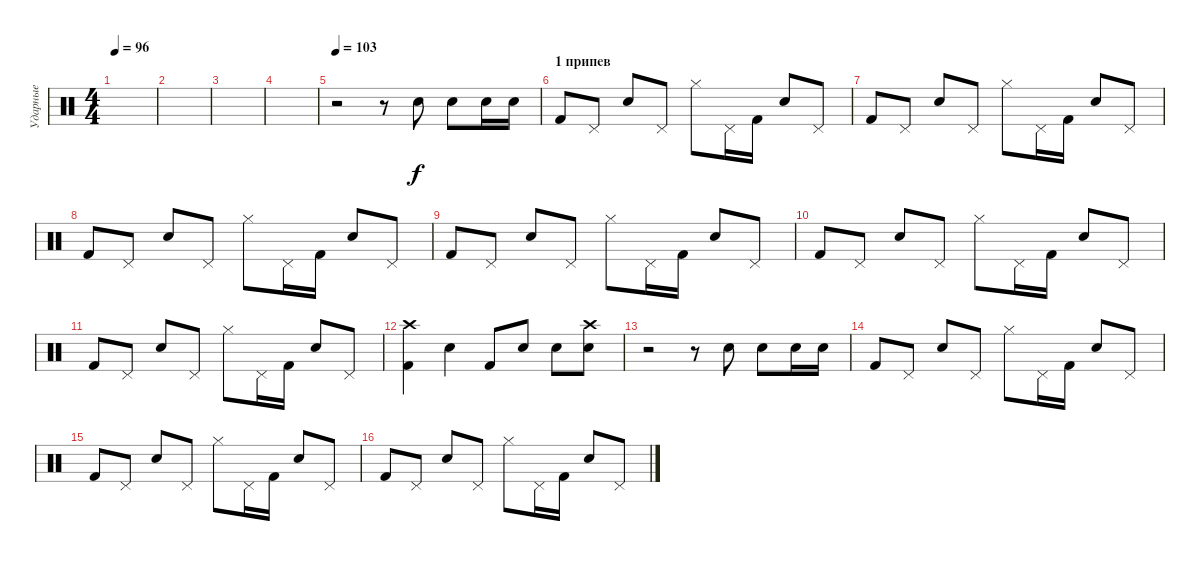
\track ("Ударные" "Ударные") {instrument percussion}
\staff {score}
\articulation defaults
\ts (4 4)
\tempo 96
\clef neutral
\ks c
|
|
|
|
\tempo 103
r.2 r.8 "Snare (hit) 2".8 "Snare (hit) 2".8 "Snare (hit) 2".16 "Snare (hit) 2".16 |
\section ("" "1 припев")
"Kick (hit) 2".8 "Pedal Hi-Hat (hit)".8 "Snare (hit) 2".8 "Pedal Hi-Hat (hit)".8 "Hi-Hat (closed)".8 "Pedal Hi-Hat (hit)".16 "Kick (hit) 2".16 "Snare (hit) 2".8 "Pedal Hi-Hat (hit)".8 |
"Kick (hit) 2".8 "Pedal Hi-Hat (hit)".8 "Snare (hit) 2".8 "Pedal Hi-Hat (hit)".8 "Hi-Hat (closed)".8 "Pedal Hi-Hat (hit)".16 "Kick (hit) 2".16 "Snare (hit) 2".8 "Pedal Hi-Hat (hit)".8 |
"Kick (hit) 2".8 "Pedal Hi-Hat (hit)".8 "Snare (hit) 2".8 "Pedal Hi-Hat (hit)".8 "Hi-Hat (closed)".8 "Pedal Hi-Hat (hit)".16 "Kick (hit) 2".16 "Snare (hit) 2".8 "Pedal Hi-Hat (hit)".8 |
"Kick (hit) 2".8 "Pedal Hi-Hat (hit)".8 "Snare (hit) 2".8 "Pedal Hi-Hat (hit)".8 "Hi-Hat (closed)".8 "Pedal Hi-Hat (hit)".16 "Kick (hit) 2".16 "Snare (hit) 2".8 "Pedal Hi-Hat (hit)".8 |
"Kick (hit) 2".8 "Pedal Hi-Hat (hit)".8 "Snare (hit) 2".8 "Pedal Hi-Hat (hit)".8 "Hi-Hat (closed)".8 "Pedal Hi-Hat (hit)".16 "Kick (hit) 2".16 "Snare (hit) 2".8 "Pedal Hi-Hat (hit)".8 |
"Kick (hit) 2".8 "Pedal Hi-Hat (hit)".8 "Snare (hit) 2".8 "Pedal Hi-Hat (hit)".8 "Hi-Hat (closed)".8 "Pedal Hi-Hat (hit)".16 "Kick (hit) 2".16 "Snare (hit) 2".8 "Pedal Hi-Hat (hit)".8 |
("Crash high (hit)" "Kick (hit) 2").4 "Snare (hit) 2".4 "Kick (hit) 2".8 "Snare (hit) 2".8 "Snare (hit) 2".8 ("Crash high (hit)" "Snare (hit) 2").8 |
r.2 r.8 "Snare (hit) 2".8 "Snare (hit) 2".8 "Snare (hit) 2".16 "Snare (hit) 2".16 |
"Kick (hit) 2".8 "Pedal Hi-Hat (hit)".8 "Snare (hit) 2".8 "Pedal Hi-Hat (hit)".8 "Hi-Hat (closed)".8 "Pedal Hi-Hat (hit)".16 "Kick (hit) 2".16 "Snare (hit) 2".8 "Pedal Hi-Hat (hit)".8 |
"Kick (hit) 2".8 "Pedal Hi-Hat (hit)".8 "Snare (hit) 2".8 "Pedal Hi-Hat (hit)".8 "Hi-Hat (closed)".8 "Pedal Hi-Hat (hit)".16 "Kick (hit) 2".16 "Snare (hit) 2".8 "Pedal Hi-Hat (hit)".8 |
"Kick (hit) 2".8 "Pedal Hi-Hat (hit)".8 "Snare (hit) 2".8 "Pedal Hi-Hat (hit)".8 "Hi-Hat (closed)".8 "Pedal Hi-Hat (hit)".16 "Kick (hit) 2".16 "Snare (hit) 2".8 "Pedal Hi-Hat (hit)".8
